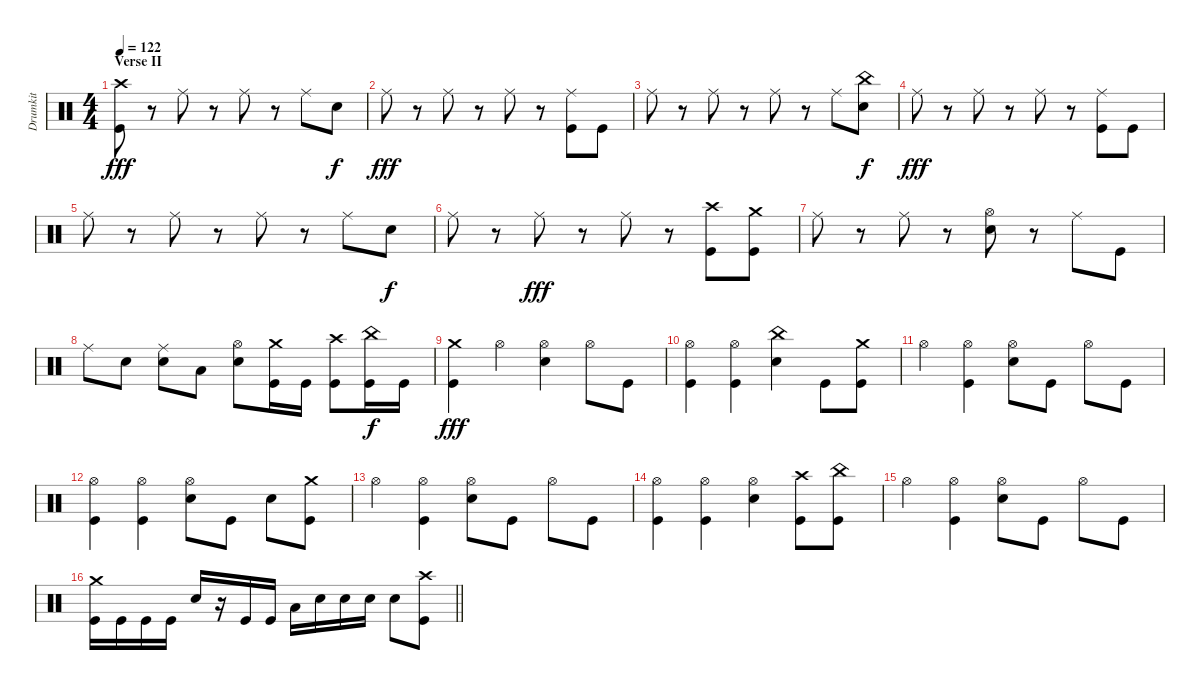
\track ("Drumkit" "Drumkit") {mute instrument percussion}
\staff {score}
\articulation defaults
\ts (4 4)
\section ("" "Verse II")
\tempo 122
\clef neutral
\ks c
("Crash high (hit)" "Kick (hit)").8{dy fff} r.8 "Ride (middle)".8 r.8 "Ride (middle)".8 r.8 "Ride (middle)".8 "Snare (hit) 2".8{dy f} |
"Ride (middle)".8{dy fff} r.8 "Ride (middle)".8 r.8 "Ride (middle)".8 r.8 ("Ride (middle)" "Kick (hit)").8 "Kick (hit)".8 |
"Ride (middle)".8 r.8 "Ride (middle)".8 r.8 "Ride (middle)".8 r.8 "Ride (middle)".8 ("Snare (hit) 2" "China (hit)").8{dy f} |
"Ride (middle)".8{dy fff} r.8 "Ride (middle)".8 r.8 "Ride (middle)".8 r.8 ("Ride (middle)" "Kick (hit)").8 "Kick (hit)".8 |
"Ride (middle)".8 r.8 "Ride (middle)".8 r.8 "Ride (middle)".8 r.8 "Ride (middle)".8 "Snare (hit) 2".8{dy f} |
"Ride (middle)".8 r.8 "Ride (middle)".8{dy fff} r.8 "Ride (middle)".8 r.8 ("Kick (hit)" "Crash high (hit)").8 ("Kick (hit)" "Crash medium (hit)").8 |
"Ride (middle)".8 r.8 "Ride (middle)".8 r.8 ("Snare (hit) 2" "Hi-Hat (open)").8 r.8 "Ride (middle)".8 "Kick (hit)".8 |
"Ride (middle)".8 "Snare (hit) 2".8 ("Snare (hit) 2" "Ride (middle)").8 "Low Tom (hit)".8 ("Hi-Hat (open)" "Snare (hit) 2").8 ("Kick (hit)" "Crash medium (hit)").16 "Kick (hit)".16 ("Kick (hit)" "Crash high (hit)").8 ("Kick (hit)" "China (hit)").16{dy f} "Kick (hit)".16 |
("Kick (hit)" "Crash medium (hit)").4{dy fff} "Hi-Hat (open)".4 ("Hi-Hat (open)" "Snare (hit) 2").4 "Hi-Hat (open)".8 "Kick (hit)".8 |
("Kick (hit)" "Hi-Hat (open)").4 ("Hi-Hat (open)" "Kick (hit)").4 ("Snare (hit) 2" "China (hit)").4 "Kick (hit)".8 ("Kick (hit)" "Crash medium (hit)").8 |
"Hi-Hat (open)".4 ("Hi-Hat (open)" "Kick (hit)").4 ("Hi-Hat (open)" "Snare (hit) 2").8 "Kick (hit)".8 "Hi-Hat (open)".8 "Kick (hit)".8 |
("Kick (hit)" "Hi-Hat (open)").4 ("Hi-Hat (open)" "Kick (hit)").4 ("Hi-Hat (open)" "Snare (hit) 2").8 "Kick (hit)".8 "Snare (hit) 2".8 ("Kick (hit)" "Crash medium (hit)").8 |
"Hi-Hat (open)".4 ("Hi-Hat (open)" "Kick (hit)").4 ("Hi-Hat (open)" "Snare (hit) 2").8 "Kick (hit)".8 "Hi-Hat (open)".8 "Kick (hit)".8 |
("Kick (hit)" "Hi-Hat (open)").4 ("Hi-Hat (open)" "Kick (hit)").4 ("Hi-Hat (open)" "Snare (hit) 2").4 ("Kick (hit)" "Crash high (hit)").8 ("Kick (hit)" "China (hit)").8 |
"Hi-Hat (open)".4 ("Hi-Hat (open)" "Kick (hit)").4 ("Hi-Hat (open)" "Snare (hit) 2").8 "Kick (hit)".8 "Hi-Hat (open)".8 "Kick (hit)".8 |
\barLineRight lightlight
("Crash medium (hit)" "Kick (hit)").16 "Kick (hit)".16 "Kick (hit)".16 "Kick (hit)".16 "Snare (hit) 2".16 r.16 "Kick (hit)".16 "Kick (hit)".16 "Low Tom (hit)".16 "Snare (hit) 2".16 "Snare (hit) 2".16 "Snare (hit) 2".16 "Snare (hit) 2".8 ("Crash high (hit)" "Kick (hit)").8
